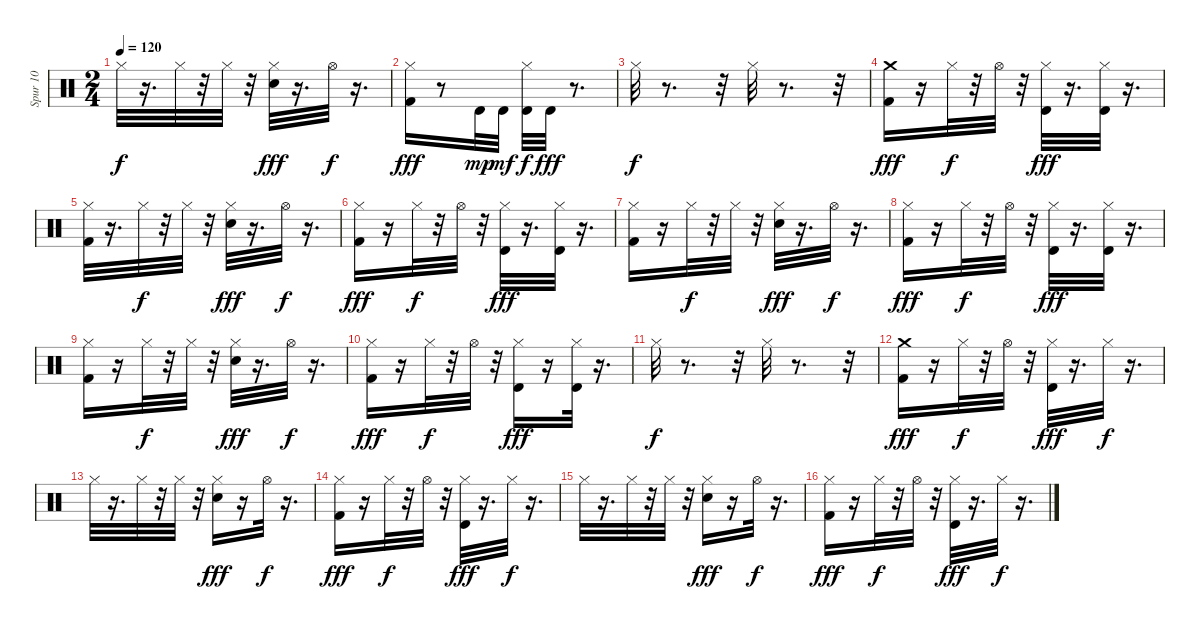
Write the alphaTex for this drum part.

\track ("Spur 10" "Spur 10") {instrument percussion}
\staff {score}
\articulation defaults
\ts (2 4)
\tempo 120
\clef neutral
\ks c "Hi-Hat (closed)".32{dy f}
r.16{d} "Hi-Hat (closed)".32 r.32 "Hi-Hat (closed)".32 r.32 ("Electric Snare (hit)" "Hi-Hat (closed)").32{dy fff} r.16{d} "Hi-Hat (open)".32{dy f} r.16{d} |
("Kick (hit) 2" "Hi-Hat (closed)").16{dy fff} r.8 "Timbale high (hit)".32{dy mp} "Timbale high (hit)".32{dy mf} ("Timbale high (hit)" "Hi-Hat (closed)").32{dy f} "Timbale high (hit)".32{dy fff} r.8{d} |
"Hi-Hat (closed)".32{dy f} r.8{d} r.32 "Hi-Hat (closed)".32 r.8{d} r.32 |
("Kick (hit) 2" "Crash medium (hit)").16{dy fff} r.16 "Hi-Hat (closed)".32{dy f} r.32 "Hi-Hat (open)".32 r.32 ("Timbale high (hit)" "Hi-Hat (closed)").32{dy fff} r.16{d} ("Timbale high (hit)" "Hi-Hat (closed)").32 r.16{d} |
("Kick (hit) 2" "Hi-Hat (closed)").32 r.16{d} "Hi-Hat (closed)".32{dy f} r.32 "Hi-Hat (closed)".32 r.32 ("Electric Snare (hit)" "Hi-Hat (closed)").32{dy fff} r.16{d} "Hi-Hat (open)".32{dy f} r.16{d} |
("Kick (hit) 2" "Hi-Hat (closed)").16{dy fff} r.16 "Hi-Hat (closed)".32{dy f} r.32 "Hi-Hat (open)".32 r.32 ("Timbale high (hit)" "Hi-Hat (closed)").32{dy fff} r.16{d} ("Timbale high (hit)" "Hi-Hat (closed)").32 r.16{d} |
("Kick (hit) 2" "Hi-Hat (closed)").16 r.16 "Hi-Hat (closed)".32{dy f} r.32 "Hi-Hat (closed)".32 r.32 ("Electric Snare (hit)" "Hi-Hat (closed)").32{dy fff} r.16{d} "Hi-Hat (open)".32{dy f} r.16{d} |
("Kick (hit) 2" "Hi-Hat (closed)").16{dy fff} r.16 "Hi-Hat (closed)".32{dy f} r.32 "Hi-Hat (open)".32 r.32 ("Timbale high (hit)" "Hi-Hat (closed)").32{dy fff} r.16{d} ("Timbale high (hit)" "Hi-Hat (closed)").32 r.16{d} |
("Kick (hit) 2" "Hi-Hat (closed)").16 r.16 "Hi-Hat (closed)".32{dy f} r.32 "Hi-Hat (closed)".32 r.32 ("Electric Snare (hit)" "Hi-Hat (closed)").32{dy fff} r.16{d} "Hi-Hat (open)".32{dy f} r.16{d} |
("Kick (hit) 2" "Hi-Hat (closed)").16{dy fff} r.16 "Hi-Hat (closed)".32{dy f} r.32 "Hi-Hat (open)".32 r.32 ("Timbale high (hit)" "Hi-Hat (closed)").16{dy fff} r.16 ("Timbale high (hit)" "Hi-Hat (closed)").32 r.16{d} |
"Hi-Hat (closed)".32{dy f} r.8{d} r.32 "Hi-Hat (closed)".32 r.8{d} r.32 |
("Kick (hit) 2" "Crash medium (hit)").16{dy fff} r.16 "Hi-Hat (closed)".32{dy f} r.32 "Hi-Hat (open)".32 r.32 ("Timbale high (hit)" "Hi-Hat (closed)").32{dy fff} r.16{d} "Hi-Hat (closed)".32{dy f} r.16{d} |
"Hi-Hat (closed)".32 r.16{d} "Hi-Hat (closed)".32 r.32 "Hi-Hat (closed)".32 r.32 ("Electric Snare (hit)" "Hi-Hat (closed)").16{dy fff} r.16 "Hi-Hat (open)".32{dy f} r.16{d} |
("Kick (hit) 2" "Hi-Hat (closed)").16{dy fff} r.16 "Hi-Hat (closed)".32{dy f} r.32 "Hi-Hat (open)".32 r.32 ("Timbale high (hit)" "Hi-Hat (closed)").32{dy fff} r.16{d} "Hi-Hat (closed)".32{dy f} r.16{d} |
"Hi-Hat (closed)".32 r.16{d} "Hi-Hat (closed)".32 r.32 "Hi-Hat (closed)".32 r.32 ("Electric Snare (hit)" "Hi-Hat (closed)").16{dy fff} r.16 "Hi-Hat (open)".32{dy f} r.16{d} |
("Kick (hit) 2" "Hi-Hat (closed)").16{dy fff} r.16 "Hi-Hat (closed)".32{dy f} r.32 "Hi-Hat (open)".32 r.32 ("Timbale high (hit)" "Hi-Hat (closed)").32{dy fff} r.16{d} "Hi-Hat (closed)".32{dy f} r.16{d}
